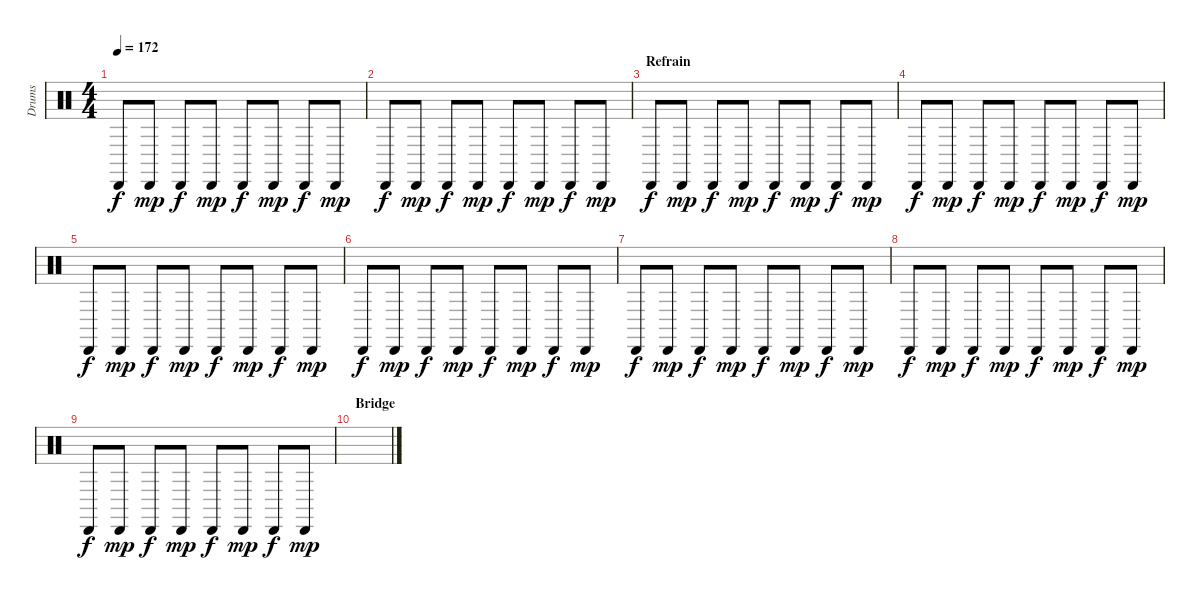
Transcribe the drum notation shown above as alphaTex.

\track ("Drums" "Drums") {instrument percussion}
\staff {score}
\articulation defaults
\ts (4 4)
\tempo 172
\clef neutral
\ks c "Cabasa (hit)".8{dy f} "Cabasa (hit)".8{dy mp} "Cabasa (hit)".8{dy f} "Cabasa (hit)".8{dy mp} "Cabasa (hit)".8{dy f} "Cabasa (hit)".8{dy mp} "Cabasa (hit)".8{dy f} "Cabasa (hit)".8{dy mp}
|
"Cabasa (hit)".8{dy f} "Cabasa (hit)".8{dy mp} "Cabasa (hit)".8{dy f} "Cabasa (hit)".8{dy mp} "Cabasa (hit)".8{dy f} "Cabasa (hit)".8{dy mp} "Cabasa (hit)".8{dy f} "Cabasa (hit)".8{dy mp} |
\section ("" "Refrain")
"Cabasa (hit)".8{dy f} "Cabasa (hit)".8{dy mp} "Cabasa (hit)".8{dy f} "Cabasa (hit)".8{dy mp} "Cabasa (hit)".8{dy f} "Cabasa (hit)".8{dy mp} "Cabasa (hit)".8{dy f} "Cabasa (hit)".8{dy mp} |
"Cabasa (hit)".8{dy f} "Cabasa (hit)".8{dy mp} "Cabasa (hit)".8{dy f} "Cabasa (hit)".8{dy mp} "Cabasa (hit)".8{dy f} "Cabasa (hit)".8{dy mp} "Cabasa (hit)".8{dy f} "Cabasa (hit)".8{dy mp} |
"Cabasa (hit)".8{dy f} "Cabasa (hit)".8{dy mp} "Cabasa (hit)".8{dy f} "Cabasa (hit)".8{dy mp} "Cabasa (hit)".8{dy f} "Cabasa (hit)".8{dy mp} "Cabasa (hit)".8{dy f} "Cabasa (hit)".8{dy mp} |
"Cabasa (hit)".8{dy f} "Cabasa (hit)".8{dy mp} "Cabasa (hit)".8{dy f} "Cabasa (hit)".8{dy mp} "Cabasa (hit)".8{dy f} "Cabasa (hit)".8{dy mp} "Cabasa (hit)".8{dy f} "Cabasa (hit)".8{dy mp} |
"Cabasa (hit)".8{dy f} "Cabasa (hit)".8{dy mp} "Cabasa (hit)".8{dy f} "Cabasa (hit)".8{dy mp} "Cabasa (hit)".8{dy f} "Cabasa (hit)".8{dy mp} "Cabasa (hit)".8{dy f} "Cabasa (hit)".8{dy mp} |
"Cabasa (hit)".8{dy f} "Cabasa (hit)".8{dy mp} "Cabasa (hit)".8{dy f} "Cabasa (hit)".8{dy mp} "Cabasa (hit)".8{dy f} "Cabasa (hit)".8{dy mp} "Cabasa (hit)".8{dy f} "Cabasa (hit)".8{dy mp} |
"Cabasa (hit)".8{dy f} "Cabasa (hit)".8{dy mp} "Cabasa (hit)".8{dy f} "Cabasa (hit)".8{dy mp} "Cabasa (hit)".8{dy f} "Cabasa (hit)".8{dy mp} "Cabasa (hit)".8{dy f} "Cabasa (hit)".8{dy mp} |
\section ("" "Bridge")
